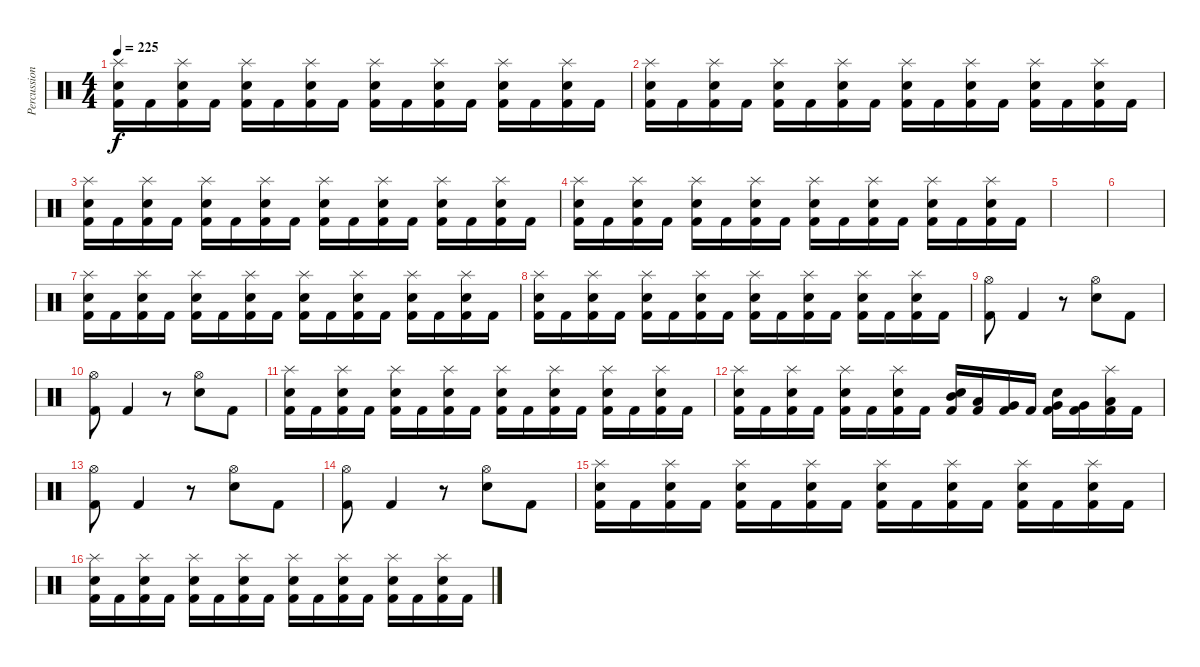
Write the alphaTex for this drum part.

\track ("Percussion" "Percussion") {instrument percussion}
\staff {score}
\articulation defaults
\ts (4 4)
\tempo 225
\clef neutral
\ks c
("Splash (hit)" "Snare (hit) 2" "Kick (hit) 2").16{dy f} "Kick (hit) 2".16 ("Splash (hit)" "Snare (hit) 2" "Kick (hit) 2").16 "Kick (hit) 2".16 ("Splash (hit)" "Snare (hit) 2" "Kick (hit) 2").16 "Kick (hit) 2".16 ("Splash (hit)" "Snare (hit) 2" "Kick (hit) 2").16 "Kick (hit) 2".16 ("Splash (hit)" "Snare (hit) 2" "Kick (hit) 2").16 "Kick (hit) 2".16 ("Splash (hit)" "Snare (hit) 2" "Kick (hit) 2").16 "Kick (hit) 2".16 ("Splash (hit)" "Snare (hit) 2" "Kick (hit) 2").16 "Kick (hit) 2".16 ("Splash (hit)" "Snare (hit) 2" "Kick (hit) 2").16 "Kick (hit) 2".16 |
("Splash (hit)" "Snare (hit) 2" "Kick (hit) 2").16 "Kick (hit) 2".16 ("Splash (hit)" "Snare (hit) 2" "Kick (hit) 2").16 "Kick (hit) 2".16 ("Splash (hit)" "Snare (hit) 2" "Kick (hit) 2").16 "Kick (hit) 2".16 ("Splash (hit)" "Snare (hit) 2" "Kick (hit) 2").16 "Kick (hit) 2".16 ("Splash (hit)" "Snare (hit) 2" "Kick (hit) 2").16 "Kick (hit) 2".16 ("Splash (hit)" "Snare (hit) 2" "Kick (hit) 2").16 "Kick (hit) 2".16 ("Splash (hit)" "Snare (hit) 2" "Kick (hit) 2").16 "Kick (hit) 2".16 ("Splash (hit)" "Snare (hit) 2" "Kick (hit) 2").16 "Kick (hit) 2".16 |
("Splash (hit)" "Snare (hit) 2" "Kick (hit) 2").16 "Kick (hit) 2".16 ("Splash (hit)" "Snare (hit) 2" "Kick (hit) 2").16 "Kick (hit) 2".16 ("Splash (hit)" "Snare (hit) 2" "Kick (hit) 2").16 "Kick (hit) 2".16 ("Splash (hit)" "Snare (hit) 2" "Kick (hit) 2").16 "Kick (hit) 2".16 ("Splash (hit)" "Snare (hit) 2" "Kick (hit) 2").16 "Kick (hit) 2".16 ("Splash (hit)" "Snare (hit) 2" "Kick (hit) 2").16 "Kick (hit) 2".16 ("Splash (hit)" "Snare (hit) 2" "Kick (hit) 2").16 "Kick (hit) 2".16 ("Splash (hit)" "Snare (hit) 2" "Kick (hit) 2").16 "Kick (hit) 2".16 |
("Splash (hit)" "Snare (hit) 2" "Kick (hit) 2").16 "Kick (hit) 2".16 ("Splash (hit)" "Snare (hit) 2" "Kick (hit) 2").16 "Kick (hit) 2".16 ("Splash (hit)" "Snare (hit) 2" "Kick (hit) 2").16 "Kick (hit) 2".16 ("Splash (hit)" "Snare (hit) 2" "Kick (hit) 2").16 "Kick (hit) 2".16 ("Splash (hit)" "Snare (hit) 2" "Kick (hit) 2").16 "Kick (hit) 2".16 ("Splash (hit)" "Snare (hit) 2" "Kick (hit) 2").16 "Kick (hit) 2".16 ("Splash (hit)" "Snare (hit) 2" "Kick (hit) 2").16 "Kick (hit) 2".16 ("Splash (hit)" "Snare (hit) 2" "Kick (hit) 2").16 "Kick (hit) 2".16 |
|
|
("Splash (hit)" "Snare (hit) 2" "Kick (hit) 2").16 "Kick (hit) 2".16 ("Splash (hit)" "Snare (hit) 2" "Kick (hit) 2").16 "Kick (hit) 2".16 ("Splash (hit)" "Snare (hit) 2" "Kick (hit) 2").16 "Kick (hit) 2".16 ("Splash (hit)" "Snare (hit) 2" "Kick (hit) 2").16 "Kick (hit) 2".16 ("Splash (hit)" "Snare (hit) 2" "Kick (hit) 2").16 "Kick (hit) 2".16 ("Splash (hit)" "Snare (hit) 2" "Kick (hit) 2").16 "Kick (hit) 2".16 ("Splash (hit)" "Snare (hit) 2" "Kick (hit) 2").16 "Kick (hit) 2".16 ("Splash (hit)" "Snare (hit) 2" "Kick (hit) 2").16 "Kick (hit) 2".16 |
("Splash (hit)" "Snare (hit) 2" "Kick (hit) 2").16 "Kick (hit) 2".16 ("Splash (hit)" "Snare (hit) 2" "Kick (hit) 2").16 "Kick (hit) 2".16 ("Splash (hit)" "Snare (hit) 2" "Kick (hit) 2").16 "Kick (hit) 2".16 ("Splash (hit)" "Snare (hit) 2" "Kick (hit) 2").16 "Kick (hit) 2".16 ("Splash (hit)" "Snare (hit) 2" "Kick (hit) 2").16 "Kick (hit) 2".16 ("Splash (hit)" "Snare (hit) 2" "Kick (hit) 2").16 "Kick (hit) 2".16 ("Splash (hit)" "Snare (hit) 2" "Kick (hit) 2").16 "Kick (hit) 2".16 ("Splash (hit)" "Snare (hit) 2" "Kick (hit) 2").16 "Kick (hit) 2".16 |
("Kick (hit) 2" "Hi-Hat (open)").8 "Kick (hit) 2".4 r.8 ("Hi-Hat (open)" "Snare (hit) 2").8 "Kick (hit) 2".8 |
("Kick (hit) 2" "Hi-Hat (open)").8 "Kick (hit) 2".4 r.8 ("Hi-Hat (open)" "Snare (hit) 2").8 "Kick (hit) 2".8 |
("Splash (hit)" "Snare (hit) 2" "Kick (hit) 2").16 "Kick (hit) 2".16 ("Splash (hit)" "Snare (hit) 2" "Kick (hit) 2").16 "Kick (hit) 2".16 ("Splash (hit)" "Snare (hit) 2" "Kick (hit) 2").16 "Kick (hit) 2".16 ("Splash (hit)" "Snare (hit) 2" "Kick (hit) 2").16 "Kick (hit) 2".16 ("Splash (hit)" "Snare (hit) 2" "Kick (hit) 2").16 "Kick (hit) 2".16 ("Splash (hit)" "Snare (hit) 2" "Kick (hit) 2").16 "Kick (hit) 2".16 ("Splash (hit)" "Snare (hit) 2" "Kick (hit) 2").16 "Kick (hit) 2".16 ("Splash (hit)" "Snare (hit) 2" "Kick (hit) 2").16 "Kick (hit) 2".16 |
("Splash (hit)" "Snare (hit) 2" "Kick (hit) 2").16 "Kick (hit) 2".16 ("Splash (hit)" "Snare (hit) 2" "Kick (hit) 2").16 "Kick (hit) 2".16 ("Splash (hit)" "Snare (hit) 2" "Kick (hit) 2").16 "Kick (hit) 2".16 ("Splash (hit)" "Snare (hit) 2" "Kick (hit) 2").16 "Kick (hit) 2".16 ("Snare (hit) 2" "Mid Tom (hit)" "Kick (hit) 2").16 ("Low Tom (hit)" "Kick (hit) 2").16 ("Very Low Tom (hit)" "Kick (hit) 2").16 "Kick (hit) 2".16 ("Snare (hit) 2" "Very Low Tom (hit)" "Kick (hit) 2").16 ("Very Low Tom (hit)" "Kick (hit) 2").16 ("Splash (hit)" "Low Floor Tom (hit)" "Kick (hit) 2").16 "Kick (hit) 2".16 |
("Kick (hit) 2" "Hi-Hat (open)").8 "Kick (hit) 2".4 r.8 ("Hi-Hat (open)" "Snare (hit) 2").8 "Kick (hit) 2".8 |
("Kick (hit) 2" "Hi-Hat (open)").8 "Kick (hit) 2".4 r.8 ("Hi-Hat (open)" "Snare (hit) 2").8 "Kick (hit) 2".8 |
("Splash (hit)" "Snare (hit) 2" "Kick (hit) 2").16 "Kick (hit) 2".16 ("Splash (hit)" "Snare (hit) 2" "Kick (hit) 2").16 "Kick (hit) 2".16 ("Splash (hit)" "Snare (hit) 2" "Kick (hit) 2").16 "Kick (hit) 2".16 ("Splash (hit)" "Snare (hit) 2" "Kick (hit) 2").16 "Kick (hit) 2".16 ("Splash (hit)" "Snare (hit) 2" "Kick (hit) 2").16 "Kick (hit) 2".16 ("Splash (hit)" "Snare (hit) 2" "Kick (hit) 2").16 "Kick (hit) 2".16 ("Splash (hit)" "Snare (hit) 2" "Kick (hit) 2").16 "Kick (hit) 2".16 ("Splash (hit)" "Snare (hit) 2" "Kick (hit) 2").16 "Kick (hit) 2".16 |
("Splash (hit)" "Snare (hit) 2" "Kick (hit) 2").16 "Kick (hit) 2".16 ("Splash (hit)" "Snare (hit) 2" "Kick (hit) 2").16 "Kick (hit) 2".16 ("Splash (hit)" "Snare (hit) 2" "Kick (hit) 2").16 "Kick (hit) 2".16 ("Splash (hit)" "Snare (hit) 2" "Kick (hit) 2").16 "Kick (hit) 2".16 ("Splash (hit)" "Snare (hit) 2" "Kick (hit) 2").16 "Kick (hit) 2".16 ("Splash (hit)" "Snare (hit) 2" "Kick (hit) 2").16 "Kick (hit) 2".16 ("Splash (hit)" "Snare (hit) 2" "Kick (hit) 2").16 "Kick (hit) 2".16 ("Splash (hit)" "Snare (hit) 2" "Kick (hit) 2").16 "Kick (hit) 2".16
